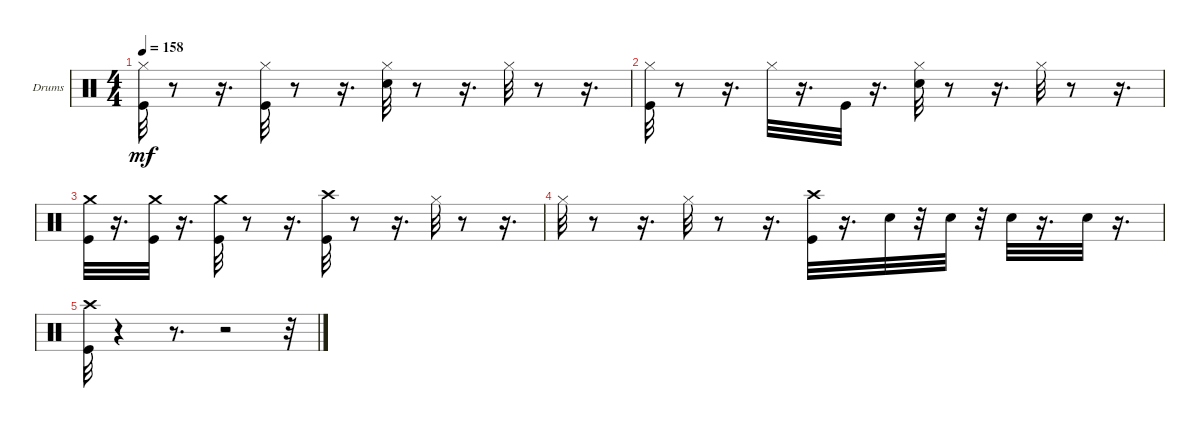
\bracketExtendMode groupsimilarinstruments
\firstSystemTrackNameOrientation horizontal
\otherSystemsTrackNameOrientation horizontal
\track ("" "Drums") {instrument percussion}
\staff {score}
\articulation defaults
\ts (4 4)
\tempo 158
\clef neutral
\ks c
("Hi-Hat (closed)" "Kick (hit)").32{dy mf} r.8 r.16{d} ("Hi-Hat (closed)" "Kick (hit)").32 r.8 r.16{d} ("Hi-Hat (closed)" "Snare (hit) 2").32 r.8 r.16{d} "Hi-Hat (closed)".32 r.8 r.16{d} |
("Hi-Hat (closed)" "Kick (hit)").32 r.8 r.16{d} "Hi-Hat (closed)".32 r.16{d} "Kick (hit)".32 r.16{d} ("Hi-Hat (closed)" "Snare (hit) 2").32 r.8 r.16{d} "Hi-Hat (closed)".32 r.8 r.16{d} |
("Crash medium (hit)" "Kick (hit)").32 r.16{d} ("Crash medium (hit)" "Kick (hit)").32 r.16{d} ("Crash medium (hit)" "Kick (hit)").32 r.8 r.16{d} ("Crash high (hit)" "Kick (hit)").32 r.8 r.16{d} "Hi-Hat (closed)".32 r.8 r.16{d} |
"Hi-Hat (closed)".32 r.8 r.16{d} "Hi-Hat (closed)".32 r.8 r.16{d} ("Crash high (hit)" "Kick (hit)").32 r.16{d} "Snare (hit) 2".32 r.32 "Snare (hit) 2".32 r.32 "Snare (hit) 2".32 r.16{d} "Snare (hit) 2".32 r.16{d} |
("Crash high (hit)" "Kick (hit)").32 r.4 r.8{d} r.2 r.32
